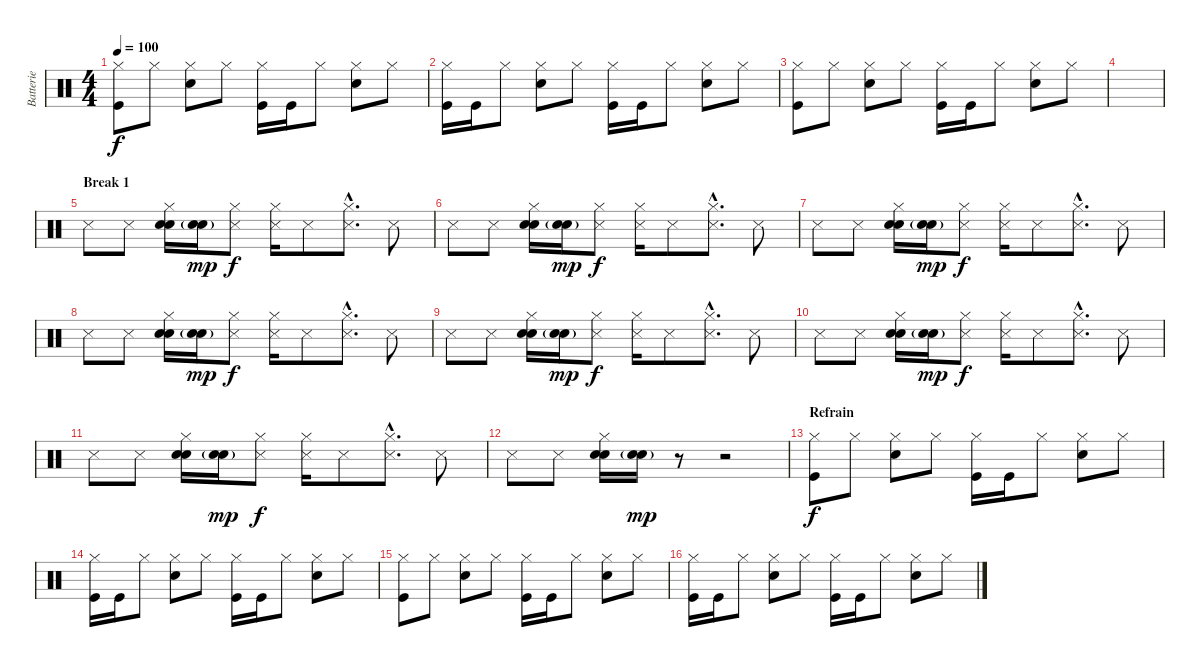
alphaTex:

\track ("Batterie " "Batterie ") {instrument percussion}
\staff {score}
\articulation defaults
\ts (4 4)
\tempo 100
\clef neutral
\ks c
("Hi-Hat (closed)" "Kick (hit)").8{dy f} "Hi-Hat (closed)".8 ("Electric Snare (hit)" "Hi-Hat (closed)").8 "Hi-Hat (closed)".8 ("Hi-Hat (closed)" "Kick (hit)").16 "Kick (hit)".16 "Hi-Hat (closed)".8 ("Electric Snare (hit)" "Hi-Hat (closed)").8 "Hi-Hat (closed)".8 |
("Hi-Hat (closed)" "Kick (hit)").16 "Kick (hit)".16 "Hi-Hat (closed)".8 ("Electric Snare (hit)" "Hi-Hat (closed)").8 "Hi-Hat (closed)".8 ("Hi-Hat (closed)" "Kick (hit)").16 "Kick (hit)".16 "Hi-Hat (closed)".8 ("Electric Snare (hit)" "Hi-Hat (closed)").8 "Hi-Hat (closed)".8 |
("Hi-Hat (closed)" "Kick (hit)").8 "Hi-Hat (closed)".8 ("Electric Snare (hit)" "Hi-Hat (closed)").8 "Hi-Hat (closed)".8 ("Hi-Hat (closed)" "Kick (hit)").16 "Kick (hit)".16 "Hi-Hat (closed)".8 ("Electric Snare (hit)" "Hi-Hat (closed)").8 "Hi-Hat (closed)".8 |
|
\section ("" "Break 1")
"Snare (side stick) 3".8 "Snare (side stick) 3".8 ("Hi-Hat (closed)" "Snare (hit) 2" "Hand Clap (hit)").16 ("Snare (hit) 2"{g} "Hand Clap (hit)"{g}).16{dy mp} ("Snare (side stick) 3" "Hi-Hat (closed)").8{dy f} ("Snare (side stick) 3" "Hi-Hat (closed)").16 "Snare (side stick) 3".8 ("Snare (side stick) 3"{hac} "Hi-Hat (closed)"{hac}).8{d} "Snare (side stick) 3".8 |
"Snare (side stick) 3".8 "Snare (side stick) 3".8 ("Hi-Hat (closed)" "Snare (hit) 2" "Hand Clap (hit)").16 ("Snare (hit) 2"{g} "Hand Clap (hit)"{g}).16{dy mp} ("Snare (side stick) 3" "Hi-Hat (closed)").8{dy f} ("Snare (side stick) 3" "Hi-Hat (closed)").16 "Snare (side stick) 3".8 ("Snare (side stick) 3"{hac} "Hi-Hat (closed)"{hac}).8{d} "Snare (side stick) 3".8 |
"Snare (side stick) 3".8 "Snare (side stick) 3".8 ("Hi-Hat (closed)" "Snare (hit) 2" "Hand Clap (hit)").16 ("Snare (hit) 2"{g} "Hand Clap (hit)"{g}).16{dy mp} ("Snare (side stick) 3" "Hi-Hat (closed)").8{dy f} ("Snare (side stick) 3" "Hi-Hat (closed)").16 "Snare (side stick) 3".8 ("Snare (side stick) 3"{hac} "Hi-Hat (closed)"{hac}).8{d} "Snare (side stick) 3".8 |
"Snare (side stick) 3".8 "Snare (side stick) 3".8 ("Hi-Hat (closed)" "Snare (hit) 2" "Hand Clap (hit)").16 ("Snare (hit) 2"{g} "Hand Clap (hit)"{g}).16{dy mp} ("Snare (side stick) 3" "Hi-Hat (closed)").8{dy f} ("Snare (side stick) 3" "Hi-Hat (closed)").16 "Snare (side stick) 3".8 ("Snare (side stick) 3"{hac} "Hi-Hat (closed)"{hac}).8{d} "Snare (side stick) 3".8 |
"Snare (side stick) 3".8 "Snare (side stick) 3".8 ("Hi-Hat (closed)" "Snare (hit) 2" "Hand Clap (hit)").16 ("Snare (hit) 2"{g} "Hand Clap (hit)"{g}).16{dy mp} ("Snare (side stick) 3" "Hi-Hat (closed)").8{dy f} ("Snare (side stick) 3" "Hi-Hat (closed)").16 "Snare (side stick) 3".8 ("Snare (side stick) 3"{hac} "Hi-Hat (closed)"{hac}).8{d} "Snare (side stick) 3".8 |
"Snare (side stick) 3".8 "Snare (side stick) 3".8 ("Hi-Hat (closed)" "Snare (hit) 2" "Hand Clap (hit)").16 ("Snare (hit) 2"{g} "Hand Clap (hit)"{g}).16{dy mp} ("Snare (side stick) 3" "Hi-Hat (closed)").8{dy f} ("Snare (side stick) 3" "Hi-Hat (closed)").16 "Snare (side stick) 3".8 ("Snare (side stick) 3"{hac} "Hi-Hat (closed)"{hac}).8{d} "Snare (side stick) 3".8 |
"Snare (side stick) 3".8 "Snare (side stick) 3".8 ("Hi-Hat (closed)" "Snare (hit) 2" "Hand Clap (hit)").16 ("Snare (hit) 2"{g} "Hand Clap (hit)"{g}).16{dy mp} ("Snare (side stick) 3" "Hi-Hat (closed)").8{dy f} ("Snare (side stick) 3" "Hi-Hat (closed)").16 "Snare (side stick) 3".8 ("Snare (side stick) 3"{hac} "Hi-Hat (closed)"{hac}).8{d} "Snare (side stick) 3".8 |
"Snare (side stick) 3".8 "Snare (side stick) 3".8 ("Hi-Hat (closed)" "Snare (hit) 2" "Hand Clap (hit)").16 ("Snare (hit) 2"{g} "Hand Clap (hit)"{g}).16{dy mp} r.8 r.2 |
\section ("" "Refrain")
("Hi-Hat (closed)" "Kick (hit)").8{dy f} "Hi-Hat (closed)".8 ("Electric Snare (hit)" "Hi-Hat (closed)").8 "Hi-Hat (closed)".8 ("Hi-Hat (closed)" "Kick (hit)").16 "Kick (hit)".16 "Hi-Hat (closed)".8 ("Electric Snare (hit)" "Hi-Hat (closed)").8 "Hi-Hat (closed)".8 |
("Hi-Hat (closed)" "Kick (hit)").16 "Kick (hit)".16 "Hi-Hat (closed)".8 ("Electric Snare (hit)" "Hi-Hat (closed)").8 "Hi-Hat (closed)".8 ("Hi-Hat (closed)" "Kick (hit)").16 "Kick (hit)".16 "Hi-Hat (closed)".8 ("Electric Snare (hit)" "Hi-Hat (closed)").8 "Hi-Hat (closed)".8 |
("Hi-Hat (closed)" "Kick (hit)").8 "Hi-Hat (closed)".8 ("Electric Snare (hit)" "Hi-Hat (closed)").8 "Hi-Hat (closed)".8 ("Hi-Hat (closed)" "Kick (hit)").16 "Kick (hit)".16 "Hi-Hat (closed)".8 ("Electric Snare (hit)" "Hi-Hat (closed)").8 "Hi-Hat (closed)".8 |
("Hi-Hat (closed)" "Kick (hit)").16 "Kick (hit)".16 "Hi-Hat (closed)".8 ("Electric Snare (hit)" "Hi-Hat (closed)").8 "Hi-Hat (closed)".8 ("Hi-Hat (closed)" "Kick (hit)").16 "Kick (hit)".16 "Hi-Hat (closed)".8 ("Electric Snare (hit)" "Hi-Hat (closed)").8 "Hi-Hat (closed)".8
